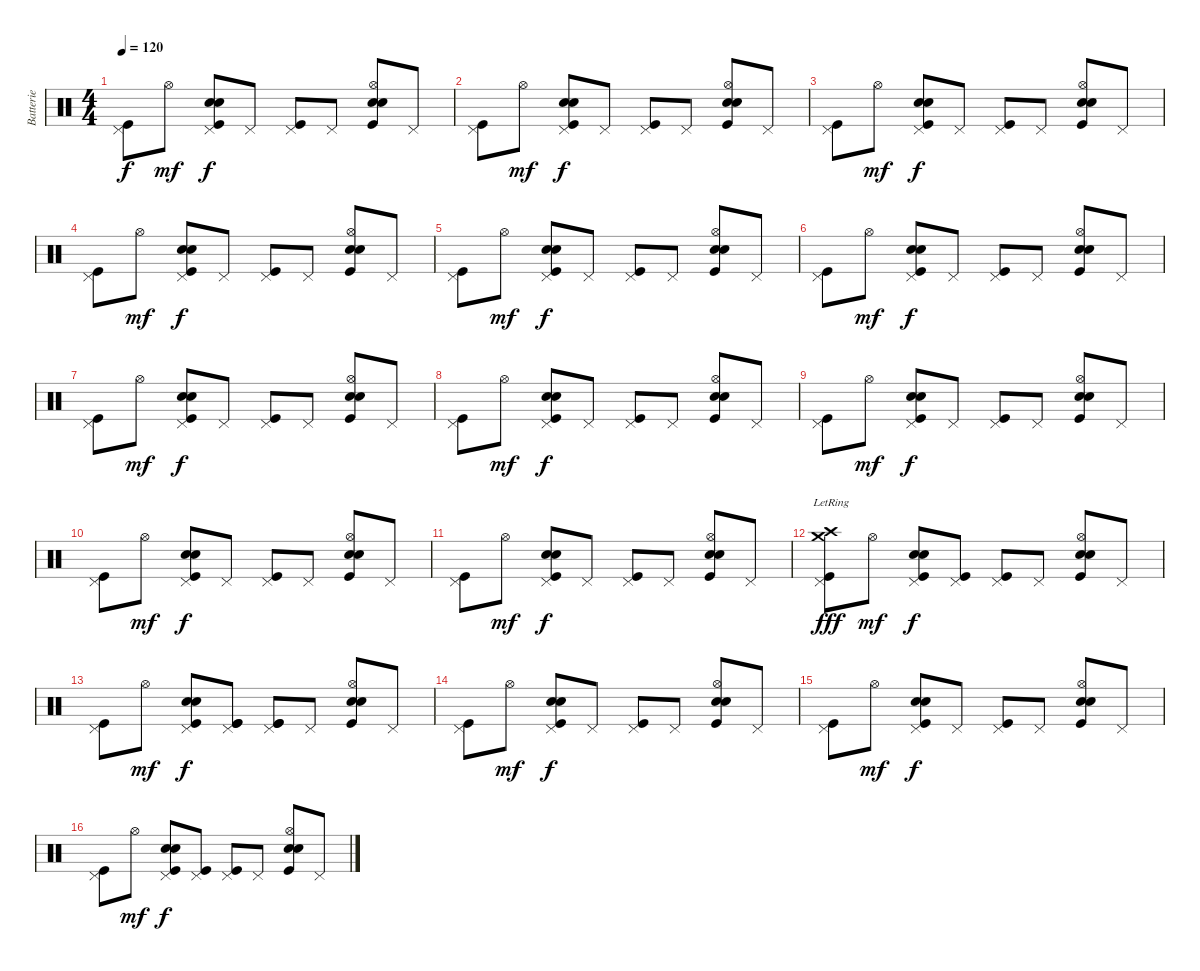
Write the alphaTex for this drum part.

\track ("Batterie" "Batterie") {instrument percussion}
\staff {score}
\articulation defaults
\ts (4 4)
\tempo 120
\clef neutral
\ks c
("Pedal Hi-Hat (hit)" "Kick (hit)").8{dy f} "Hi-Hat (open)".8{dy mf} ("Pedal Hi-Hat (hit)" "Kick (hit)" "Electric Snare (hit)" "Snare (hit) 2").8{dy f} "Pedal Hi-Hat (hit)".8 ("Pedal Hi-Hat (hit)" "Kick (hit)").8 "Pedal Hi-Hat (hit)".8 ("Hi-Hat (open)" "Kick (hit)" "Electric Snare (hit)" "Snare (hit) 2").8 "Pedal Hi-Hat (hit)".8 |
("Pedal Hi-Hat (hit)" "Kick (hit)").8 "Hi-Hat (open)".8{dy mf} ("Pedal Hi-Hat (hit)" "Kick (hit)" "Electric Snare (hit)" "Snare (hit) 2").8{dy f} "Pedal Hi-Hat (hit)".8 ("Pedal Hi-Hat (hit)" "Kick (hit)").8 "Pedal Hi-Hat (hit)".8 ("Hi-Hat (open)" "Kick (hit)" "Electric Snare (hit)" "Snare (hit) 2").8 "Pedal Hi-Hat (hit)".8 |
("Pedal Hi-Hat (hit)" "Kick (hit)").8 "Hi-Hat (open)".8{dy mf} ("Pedal Hi-Hat (hit)" "Kick (hit)" "Electric Snare (hit)" "Snare (hit) 2").8{dy f} "Pedal Hi-Hat (hit)".8 ("Pedal Hi-Hat (hit)" "Kick (hit)").8 "Pedal Hi-Hat (hit)".8 ("Hi-Hat (open)" "Kick (hit)" "Electric Snare (hit)" "Snare (hit) 2").8 "Pedal Hi-Hat (hit)".8 |
("Pedal Hi-Hat (hit)" "Kick (hit)").8 "Hi-Hat (open)".8{dy mf} ("Pedal Hi-Hat (hit)" "Kick (hit)" "Electric Snare (hit)" "Snare (hit) 2").8{dy f} "Pedal Hi-Hat (hit)".8 ("Pedal Hi-Hat (hit)" "Kick (hit)").8 "Pedal Hi-Hat (hit)".8 ("Hi-Hat (open)" "Kick (hit)" "Electric Snare (hit)" "Snare (hit) 2").8 "Pedal Hi-Hat (hit)".8 |
("Pedal Hi-Hat (hit)" "Kick (hit)").8 "Hi-Hat (open)".8{dy mf} ("Pedal Hi-Hat (hit)" "Kick (hit)" "Electric Snare (hit)" "Snare (hit) 2").8{dy f} "Pedal Hi-Hat (hit)".8 ("Pedal Hi-Hat (hit)" "Kick (hit)").8 "Pedal Hi-Hat (hit)".8 ("Hi-Hat (open)" "Kick (hit)" "Electric Snare (hit)" "Snare (hit) 2").8 "Pedal Hi-Hat (hit)".8 |
("Pedal Hi-Hat (hit)" "Kick (hit)").8 "Hi-Hat (open)".8{dy mf} ("Pedal Hi-Hat (hit)" "Kick (hit)" "Electric Snare (hit)" "Snare (hit) 2").8{dy f} "Pedal Hi-Hat (hit)".8 ("Pedal Hi-Hat (hit)" "Kick (hit)").8 "Pedal Hi-Hat (hit)".8 ("Hi-Hat (open)" "Kick (hit)" "Electric Snare (hit)" "Snare (hit) 2").8 "Pedal Hi-Hat (hit)".8 |
("Pedal Hi-Hat (hit)" "Kick (hit)").8 "Hi-Hat (open)".8{dy mf} ("Pedal Hi-Hat (hit)" "Kick (hit)" "Electric Snare (hit)" "Snare (hit) 2").8{dy f} "Pedal Hi-Hat (hit)".8 ("Pedal Hi-Hat (hit)" "Kick (hit)").8 "Pedal Hi-Hat (hit)".8 ("Hi-Hat (open)" "Kick (hit)" "Electric Snare (hit)" "Snare (hit) 2").8 "Pedal Hi-Hat (hit)".8 |
("Pedal Hi-Hat (hit)" "Kick (hit)").8 "Hi-Hat (open)".8{dy mf} ("Pedal Hi-Hat (hit)" "Kick (hit)" "Electric Snare (hit)" "Snare (hit) 2").8{dy f} "Pedal Hi-Hat (hit)".8 ("Pedal Hi-Hat (hit)" "Kick (hit)").8 "Pedal Hi-Hat (hit)".8 ("Hi-Hat (open)" "Kick (hit)" "Electric Snare (hit)" "Snare (hit) 2").8 "Pedal Hi-Hat (hit)".8 |
("Pedal Hi-Hat (hit)" "Kick (hit)").8 "Hi-Hat (open)".8{dy mf} ("Pedal Hi-Hat (hit)" "Kick (hit)" "Electric Snare (hit)" "Snare (hit) 2").8{dy f} "Pedal Hi-Hat (hit)".8 ("Pedal Hi-Hat (hit)" "Kick (hit)").8 "Pedal Hi-Hat (hit)".8 ("Hi-Hat (open)" "Kick (hit)" "Electric Snare (hit)" "Snare (hit) 2").8 "Pedal Hi-Hat (hit)".8 |
("Pedal Hi-Hat (hit)" "Kick (hit)").8 "Hi-Hat (open)".8{dy mf} ("Pedal Hi-Hat (hit)" "Kick (hit)" "Electric Snare (hit)" "Snare (hit) 2").8{dy f} "Pedal Hi-Hat (hit)".8 ("Pedal Hi-Hat (hit)" "Kick (hit)").8 "Pedal Hi-Hat (hit)".8 ("Hi-Hat (open)" "Kick (hit)" "Electric Snare (hit)" "Snare (hit) 2").8 "Pedal Hi-Hat (hit)".8 |
("Pedal Hi-Hat (hit)" "Kick (hit)").8 "Hi-Hat (open)".8{dy mf} ("Pedal Hi-Hat (hit)" "Kick (hit)" "Electric Snare (hit)" "Snare (hit) 2").8{dy f} "Pedal Hi-Hat (hit)".8 ("Pedal Hi-Hat (hit)" "Kick (hit)").8 "Pedal Hi-Hat (hit)".8 ("Hi-Hat (open)" "Kick (hit)" "Electric Snare (hit)" "Snare (hit) 2").8 "Pedal Hi-Hat (hit)".8 |
("Pedal Hi-Hat (hit)" "Kick (hit)" "Crash high (hit)"{lr} "Crash medium (hit)"{lr}).8{dy fff} "Hi-Hat (open)".8{dy mf} ("Pedal Hi-Hat (hit)" "Kick (hit)" "Electric Snare (hit)" "Snare (hit) 2").8{dy f} ("Pedal Hi-Hat (hit)" "Kick (hit)").8 ("Pedal Hi-Hat (hit)" "Kick (hit)").8 "Pedal Hi-Hat (hit)".8 ("Hi-Hat (open)" "Kick (hit)" "Electric Snare (hit)" "Snare (hit) 2").8 "Pedal Hi-Hat (hit)".8 |
("Pedal Hi-Hat (hit)" "Kick (hit)").8 "Hi-Hat (open)".8{dy mf} ("Pedal Hi-Hat (hit)" "Kick (hit)" "Electric Snare (hit)" "Snare (hit) 2").8{dy f} ("Pedal Hi-Hat (hit)" "Kick (hit)" "Kick (hit)").8 ("Pedal Hi-Hat (hit)" "Kick (hit)" "Kick (hit)").8 "Pedal Hi-Hat (hit)".8 ("Hi-Hat (open)" "Kick (hit)" "Electric Snare (hit)" "Snare (hit) 2").8 "Pedal Hi-Hat (hit)".8 |
("Pedal Hi-Hat (hit)" "Kick (hit)").8 "Hi-Hat (open)".8{dy mf} ("Pedal Hi-Hat (hit)" "Kick (hit)" "Electric Snare (hit)" "Snare (hit) 2").8{dy f} "Pedal Hi-Hat (hit)".8 ("Pedal Hi-Hat (hit)" "Kick (hit)").8 "Pedal Hi-Hat (hit)".8 ("Hi-Hat (open)" "Kick (hit)" "Electric Snare (hit)" "Snare (hit) 2").8 "Pedal Hi-Hat (hit)".8 |
("Pedal Hi-Hat (hit)" "Kick (hit)").8 "Hi-Hat (open)".8{dy mf} ("Pedal Hi-Hat (hit)" "Kick (hit)" "Electric Snare (hit)" "Snare (hit) 2").8{dy f} "Pedal Hi-Hat (hit)".8 ("Pedal Hi-Hat (hit)" "Kick (hit)").8 "Pedal Hi-Hat (hit)".8 ("Hi-Hat (open)" "Kick (hit)" "Electric Snare (hit)" "Snare (hit) 2").8 "Pedal Hi-Hat (hit)".8 |
("Pedal Hi-Hat (hit)" "Kick (hit)").8 "Hi-Hat (open)".8{dy mf} ("Pedal Hi-Hat (hit)" "Kick (hit)" "Electric Snare (hit)" "Snare (hit) 2").8{dy f} ("Pedal Hi-Hat (hit)" "Kick (hit)").8 ("Pedal Hi-Hat (hit)" "Kick (hit)").8 "Pedal Hi-Hat (hit)".8 ("Hi-Hat (open)" "Kick (hit)" "Electric Snare (hit)" "Snare (hit) 2").8 "Pedal Hi-Hat (hit)".8
